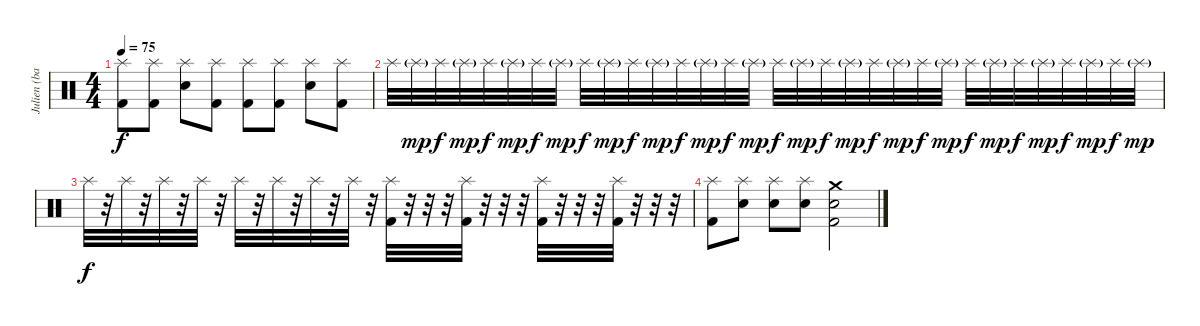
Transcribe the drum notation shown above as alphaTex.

\track ("Julien (batterie)" "Julien (ba") {instrument percussion}
\staff {score}
\articulation defaults
\ts (4 4)
\tempo 75
\clef neutral
\ks c
("Splash (hit)" "Kick (hit) 2").8{dy f} ("Splash (hit)" "Kick (hit) 2").8 ("Splash (hit)" "Electric Snare (hit)").8 ("Splash (hit)" "Kick (hit) 2").8 ("Splash (hit)" "Kick (hit) 2").8 ("Splash (hit)" "Kick (hit) 2").8 ("Splash (hit)" "Electric Snare (hit)").8 ("Splash (hit)" "Kick (hit) 2").8 |
"Splash (hit)".32 "Splash (hit)"{g}.32{dy mp} "Splash (hit)".32{dy f} "Splash (hit)"{g}.32{dy mp} "Splash (hit)".32{dy f} "Splash (hit)"{g}.32{dy mp} "Splash (hit)".32{dy f} "Splash (hit)"{g}.32{dy mp} "Splash (hit)".32{dy f} "Splash (hit)"{g}.32{dy mp} "Splash (hit)".32{dy f} "Splash (hit)"{g}.32{dy mp} "Splash (hit)".32{dy f} "Splash (hit)"{g}.32{dy mp} "Splash (hit)".32{dy f} "Splash (hit)"{g}.32{dy mp} "Splash (hit)".32{dy f} "Splash (hit)"{g}.32{dy mp} "Splash (hit)".32{dy f} "Splash (hit)"{g}.32{dy mp} "Splash (hit)".32{dy f} "Splash (hit)"{g}.32{dy mp} "Splash (hit)".32{dy f} "Splash (hit)"{g}.32{dy mp} "Splash (hit)".32{dy f} "Splash (hit)"{g}.32{dy mp} "Splash (hit)".32{dy f} "Splash (hit)"{g}.32{dy mp} "Splash (hit)".32{dy f} "Splash (hit)"{g}.32{dy mp} "Splash (hit)".32{dy f} "Splash (hit)"{g}.32{dy mp} |
"Splash (hit)".32{dy f} r.32 "Splash (hit)".32 r.32 "Splash (hit)".32 r.32 "Splash (hit)".32 r.32 "Splash (hit)".32 r.32 "Splash (hit)".32 r.32 "Splash (hit)".32 r.32 "Splash (hit)".32 r.32 ("Splash (hit)" "Kick (hit) 2").32 r.32 r.32 r.32 ("Splash (hit)" "Kick (hit) 2").32 r.32 r.32 r.32 ("Splash (hit)" "Kick (hit) 2").32 r.32 r.32 r.32 ("Splash (hit)" "Kick (hit) 2").32 r.32 r.32 r.32 |
("Splash (hit)" "Kick (hit) 2").8 ("Splash (hit)" "Electric Snare (hit)").8 ("Splash (hit)" "Electric Snare (hit)").8 ("Splash (hit)" "Electric Snare (hit)").8 ("Crash medium (hit)" "Electric Snare (hit)" "Kick (hit) 2").2
